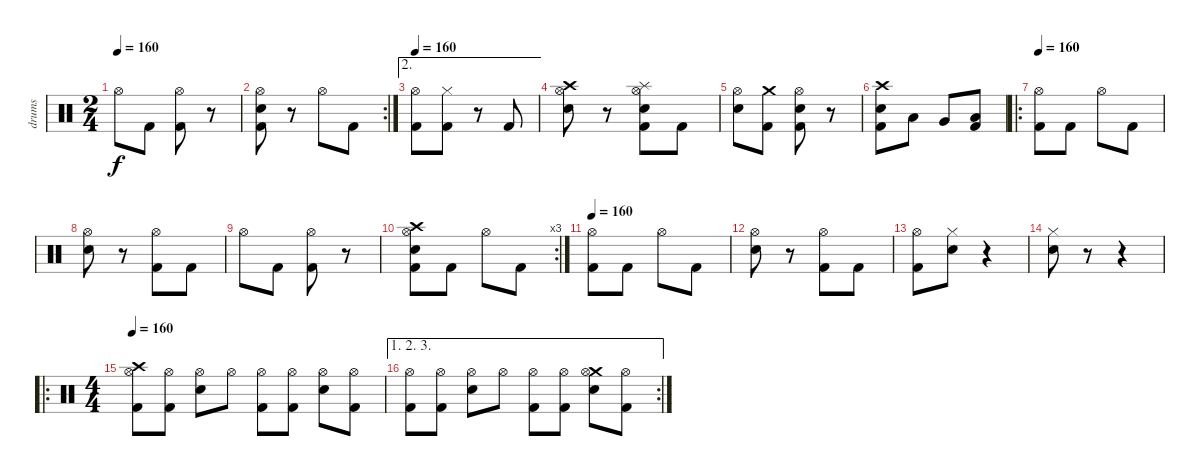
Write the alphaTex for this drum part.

\track ("drums" "drums") {instrument percussion}
\staff {score}
\articulation defaults
\ts (2 4)
\tempo 160
\clef neutral
\ks c "Hi-Hat (open)".8{dy f} "Kick (hit) 2".8
("Hi-Hat (open)" "Kick (hit) 2").8 r.8 |
\rc 2
("Hi-Hat (open)" "Electric Snare (hit)" "Kick (hit) 2").8 r.8 "Hi-Hat (open)".8 "Kick (hit) 2".8 |
\ae 2
\tempo 160
("Hi-Hat (open)" "Kick (hit) 2").8 ("Hi-Hat (closed)" "Kick (hit) 2").8 r.8 "Kick (hit) 2".8 |
("Crash high (hit)" "Hi-Hat (open)" "Electric Snare (hit)").8 r.8 ("Splash (hit)" "Hi-Hat (open)" "Electric Snare (hit)" "Kick (hit) 2").8 "Kick (hit) 2".8 |
("Hi-Hat (open)" "Electric Snare (hit)").8 ("Crash medium (hit)" "Kick (hit) 2").8 ("Hi-Hat (open)" "Electric Snare (hit)" "Kick (hit) 2").8 r.8 |
("Crash high (hit)" "Electric Snare (hit)" "Kick (hit) 2").8 "Low Tom (hit)".8 "Very Low Tom (hit)".8 ("Low Floor Tom (hit)" "Kick (hit) 2").8 |
\ro
\tempo 160
("Hi-Hat (open)" "Kick (hit) 2").8 "Kick (hit) 2".8 "Hi-Hat (open)".8 "Kick (hit) 2".8 |
("Hi-Hat (open)" "Electric Snare (hit)").8 r.8 ("Hi-Hat (open)" "Kick (hit) 2").8 "Kick (hit) 2".8 |
"Hi-Hat (open)".8 "Kick (hit) 2".8 ("Hi-Hat (open)" "Kick (hit) 2").8 r.8 |
\rc 3
("Crash high (hit)" "Hi-Hat (open)" "Electric Snare (hit)" "Kick (hit) 2").8 "Kick (hit) 2".8 "Hi-Hat (open)".8 "Kick (hit) 2".8 |
\tempo 160
("Hi-Hat (open)" "Kick (hit) 2").8 "Kick (hit) 2".8 "Hi-Hat (open)".8 "Kick (hit) 2".8 |
("Hi-Hat (open)" "Electric Snare (hit)").8 r.8 ("Hi-Hat (open)" "Kick (hit) 2").8 "Kick (hit) 2".8 |
("Hi-Hat (open)" "Kick (hit) 2").8 ("Hi-Hat (closed)" "Electric Snare (hit)").8 r.4 |
("Hi-Hat (closed)" "Electric Snare (hit)").8 r.8 r.4 |
\ro
\ts (4 4)
\tempo 160
("Crash high (hit)" "Hi-Hat (open)" "Kick (hit) 2").8 ("Hi-Hat (open)" "Kick (hit) 2").8 ("Hi-Hat (open)" "Electric Snare (hit)").8 "Hi-Hat (open)".8 ("Hi-Hat (open)" "Kick (hit) 2").8 ("Hi-Hat (open)" "Kick (hit) 2").8 ("Hi-Hat (open)" "Electric Snare (hit)").8 ("Hi-Hat (open)" "Kick (hit) 2").8 |
\ae (1 2 3)
\rc 2
("Hi-Hat (open)" "Kick (hit) 2").8 ("Hi-Hat (open)" "Kick (hit) 2").8 ("Hi-Hat (open)" "Electric Snare (hit)").8 "Hi-Hat (open)".8 ("Hi-Hat (open)" "Kick (hit) 2").8 ("Hi-Hat (open)" "Kick (hit) 2").8 ("Crash medium (hit)" "Hi-Hat (open)" "Electric Snare (hit)").8 ("Hi-Hat (open)" "Kick (hit) 2").8
